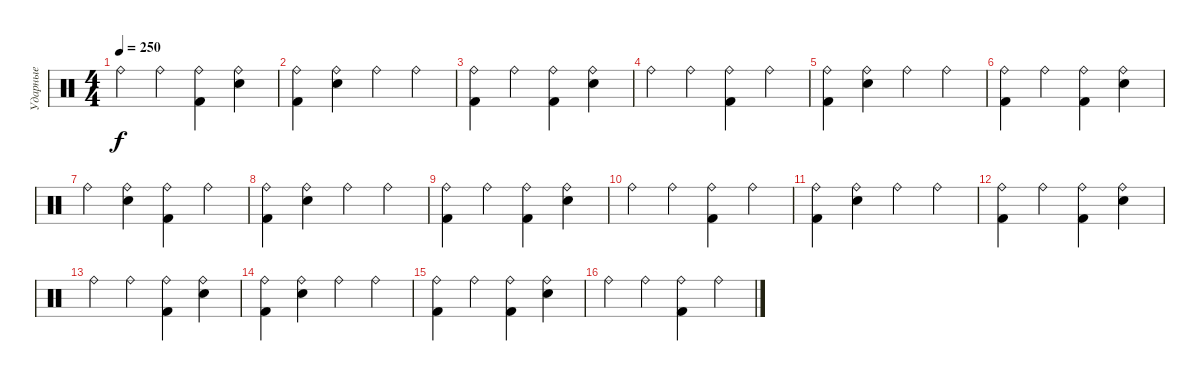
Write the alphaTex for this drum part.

\track ("Ударные" "Ударные") {instrument percussion}
\staff {score}
\articulation defaults
\ts (4 4)
\tempo 250
\clef neutral
\ks c "Ride (bell)".4{dy f} "Ride (bell)".4
("Ride (bell)" "Kick (hit) 2").4 ("Snare (hit) 2" "Ride (bell)").4 |
("Ride (bell)" "Kick (hit) 2").4 ("Snare (hit) 2" "Ride (bell)").4 "Ride (bell)".4 "Ride (bell)".4 |
("Ride (bell)" "Kick (hit) 2").4 "Ride (bell)".4 ("Ride (bell)" "Kick (hit) 2").4 ("Snare (hit) 2" "Ride (bell)").4 |
"Ride (bell)".4 "Ride (bell)".4 ("Ride (bell)" "Kick (hit) 2").4 "Ride (bell)".4 |
("Ride (bell)" "Kick (hit) 2").4 ("Snare (hit) 2" "Ride (bell)").4 "Ride (bell)".4 "Ride (bell)".4 |
("Ride (bell)" "Kick (hit) 2").4 "Ride (bell)".4 ("Ride (bell)" "Kick (hit) 2").4 ("Snare (hit) 2" "Ride (bell)").4 |
"Ride (bell)".4 ("Snare (hit) 2" "Ride (bell)").4 ("Ride (bell)" "Kick (hit) 2").4 "Ride (bell)".4 |
("Ride (bell)" "Kick (hit) 2").4 ("Snare (hit) 2" "Ride (bell)").4 "Ride (bell)".4 "Ride (bell)".4 |
("Ride (bell)" "Kick (hit) 2").4 "Ride (bell)".4 ("Ride (bell)" "Kick (hit) 2").4 ("Snare (hit) 2" "Ride (bell)").4 |
"Ride (bell)".4 "Ride (bell)".4 ("Ride (bell)" "Kick (hit) 2").4 "Ride (bell)".4 |
("Ride (bell)" "Kick (hit) 2").4 ("Snare (hit) 2" "Ride (bell)").4 "Ride (bell)".4 "Ride (bell)".4 |
("Ride (bell)" "Kick (hit) 2").4 "Ride (bell)".4 ("Ride (bell)" "Kick (hit) 2").4 ("Snare (hit) 2" "Ride (bell)").4 |
"Ride (bell)".4 "Ride (bell)".4 ("Ride (bell)" "Kick (hit) 2").4 ("Snare (hit) 2" "Ride (bell)").4 |
("Ride (bell)" "Kick (hit) 2").4 ("Snare (hit) 2" "Ride (bell)").4 "Ride (bell)".4 "Ride (bell)".4 |
("Ride (bell)" "Kick (hit) 2").4 "Ride (bell)".4 ("Ride (bell)" "Kick (hit) 2").4 ("Snare (hit) 2" "Ride (bell)").4 |
"Ride (bell)".4 "Ride (bell)".4 ("Ride (bell)" "Kick (hit) 2").4 "Ride (bell)".4
